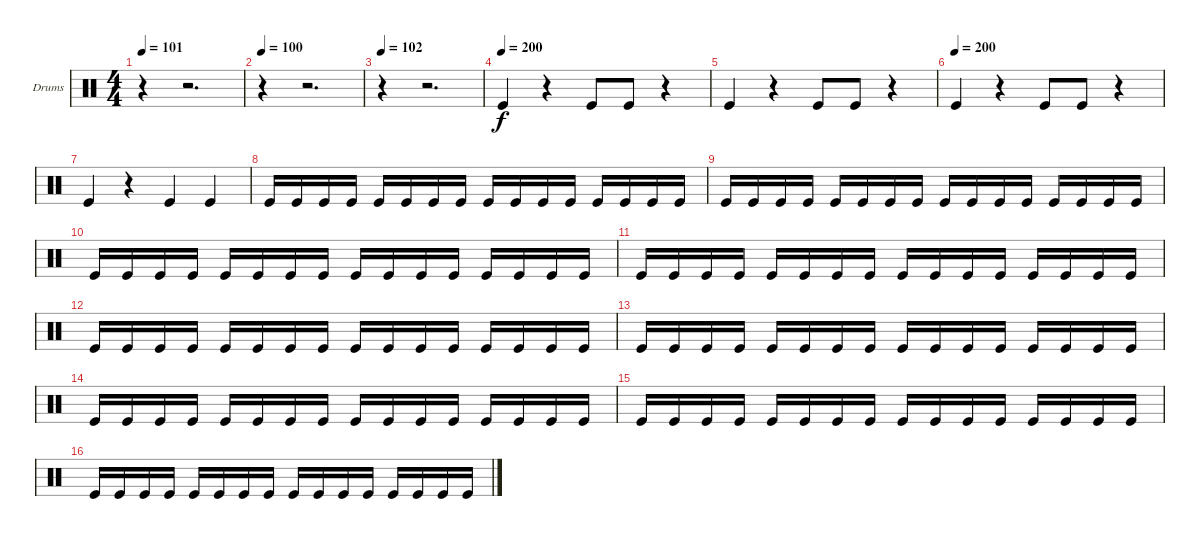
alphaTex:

\bracketExtendMode groupsimilarinstruments
\firstSystemTrackNameOrientation horizontal
\otherSystemsTrackNameOrientation horizontal
\track ("Drumkit" "Drums") {instrument percussion}
\staff {score}
\articulation defaults
\ts (4 4)
\tempo 101
\clef neutral
\ks c
r.4{dy ff} r.2{d} |
\tempo 100
r.4 r.2{d} |
\tempo 102
r.4 r.2{d} |
\tempo (200)
"Kick (hit)".4{dy f} r.4 "Kick (hit)".8 "Kick (hit)".8 r.4 |
"Kick (hit)".4 r.4 "Kick (hit)".8 "Kick (hit)".8 r.4 |
\tempo (200)
"Kick (hit)".4 r.4 "Kick (hit)".8 "Kick (hit)".8 r.4 |
"Kick (hit)".4 r.4 "Kick (hit)".4 "Kick (hit)".4 |
"Kick (hit)".16 "Kick (hit)".16 "Kick (hit)".16 "Kick (hit)".16 "Kick (hit)".16 "Kick (hit)".16 "Kick (hit)".16 "Kick (hit)".16 "Kick (hit)".16 "Kick (hit)".16 "Kick (hit)".16 "Kick (hit)".16 "Kick (hit)".16 "Kick (hit)".16 "Kick (hit)".16 "Kick (hit)".16 |
"Kick (hit)".16 "Kick (hit)".16 "Kick (hit)".16 "Kick (hit)".16 "Kick (hit)".16 "Kick (hit)".16 "Kick (hit)".16 "Kick (hit)".16 "Kick (hit)".16 "Kick (hit)".16 "Kick (hit)".16 "Kick (hit)".16 "Kick (hit)".16 "Kick (hit)".16 "Kick (hit)".16 "Kick (hit)".16 |
"Kick (hit)".16 "Kick (hit)".16 "Kick (hit)".16 "Kick (hit)".16 "Kick (hit)".16 "Kick (hit)".16 "Kick (hit)".16 "Kick (hit)".16 "Kick (hit)".16 "Kick (hit)".16 "Kick (hit)".16 "Kick (hit)".16 "Kick (hit)".16 "Kick (hit)".16 "Kick (hit)".16 "Kick (hit)".16 |
"Kick (hit)".16 "Kick (hit)".16 "Kick (hit)".16 "Kick (hit)".16 "Kick (hit)".16 "Kick (hit)".16 "Kick (hit)".16 "Kick (hit)".16 "Kick (hit)".16 "Kick (hit)".16 "Kick (hit)".16 "Kick (hit)".16 "Kick (hit)".16 "Kick (hit)".16 "Kick (hit)".16 "Kick (hit)".16 |
"Kick (hit)".16 "Kick (hit)".16 "Kick (hit)".16 "Kick (hit)".16 "Kick (hit)".16 "Kick (hit)".16 "Kick (hit)".16 "Kick (hit)".16 "Kick (hit)".16 "Kick (hit)".16 "Kick (hit)".16 "Kick (hit)".16 "Kick (hit)".16 "Kick (hit)".16 "Kick (hit)".16 "Kick (hit)".16 |
"Kick (hit)".16 "Kick (hit)".16 "Kick (hit)".16 "Kick (hit)".16 "Kick (hit)".16 "Kick (hit)".16 "Kick (hit)".16 "Kick (hit)".16 "Kick (hit)".16 "Kick (hit)".16 "Kick (hit)".16 "Kick (hit)".16 "Kick (hit)".16 "Kick (hit)".16 "Kick (hit)".16 "Kick (hit)".16 |
"Kick (hit)".16 "Kick (hit)".16 "Kick (hit)".16 "Kick (hit)".16 "Kick (hit)".16 "Kick (hit)".16 "Kick (hit)".16 "Kick (hit)".16 "Kick (hit)".16 "Kick (hit)".16 "Kick (hit)".16 "Kick (hit)".16 "Kick (hit)".16 "Kick (hit)".16 "Kick (hit)".16 "Kick (hit)".16 |
"Kick (hit)".16 "Kick (hit)".16 "Kick (hit)".16 "Kick (hit)".16 "Kick (hit)".16 "Kick (hit)".16 "Kick (hit)".16 "Kick (hit)".16 "Kick (hit)".16 "Kick (hit)".16 "Kick (hit)".16 "Kick (hit)".16 "Kick (hit)".16 "Kick (hit)".16 "Kick (hit)".16 "Kick (hit)".16 |
"Kick (hit)".16 "Kick (hit)".16 "Kick (hit)".16 "Kick (hit)".16 "Kick (hit)".16 "Kick (hit)".16 "Kick (hit)".16 "Kick (hit)".16 "Kick (hit)".16 "Kick (hit)".16 "Kick (hit)".16 "Kick (hit)".16 "Kick (hit)".16 "Kick (hit)".16 "Kick (hit)".16 "Kick (hit)".16
